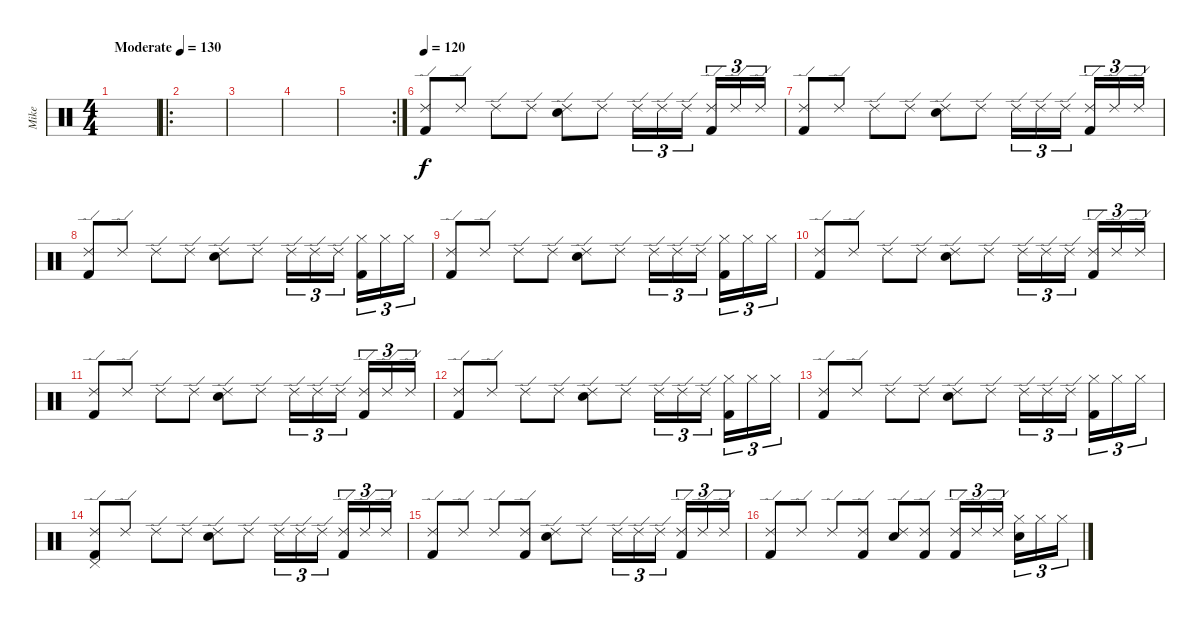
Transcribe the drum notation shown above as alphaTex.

\track ("Mike" "Mike") {instrument percussion}
\staff {score}
\articulation defaults
\ts (4 4)
\tempo (130 "Moderate")
\clef neutral
\ks c
|
\ro
|
|
|
\rc 2
|
\tempo 120
("Ride (edge) 2" "Kick (hit) 2").8 "Ride (edge) 2".8 "Ride (edge) 2".8 "Ride (edge) 2".8 ("Ride (edge) 2" "Electric Snare (hit)").8 "Ride (edge) 2".8 "Ride (edge) 2".16{tu (3 2)} "Ride (edge) 2".16{tu (3 2)} "Ride (edge) 2".16{tu (3 2) beam splitsecondary} ("Ride (edge) 2" "Kick (hit) 2").16{tu (3 2)} "Ride (edge) 2".16{tu (3 2)} "Ride (edge) 2".16{tu (3 2)} |
("Ride (edge) 2" "Kick (hit) 2").8 "Ride (edge) 2".8 "Ride (edge) 2".8 "Ride (edge) 2".8 ("Ride (edge) 2" "Electric Snare (hit)").8 "Ride (edge) 2".8 "Ride (edge) 2".16{tu (3 2)} "Ride (edge) 2".16{tu (3 2)} "Ride (edge) 2".16{tu (3 2) beam splitsecondary} ("Ride (edge) 2" "Kick (hit) 2").16{tu (3 2)} "Ride (edge) 2".16{tu (3 2)} "Ride (edge) 2".16{tu (3 2)} |
("Ride (edge) 2" "Kick (hit) 2").8 "Ride (edge) 2".8 "Ride (edge) 2".8 "Ride (edge) 2".8 ("Ride (edge) 2" "Electric Snare (hit)").8 "Ride (edge) 2".8 "Ride (edge) 2".16{tu (3 2)} "Ride (edge) 2".16{tu (3 2)} "Ride (edge) 2".16{tu (3 2) beam splitsecondary} ("Hi-Hat (closed)" "Kick (hit) 2").16{tu (3 2)} "Hi-Hat (closed)".16{tu (3 2)} "Hi-Hat (closed)".16{tu (3 2)} |
("Ride (edge) 2" "Kick (hit) 2").8 "Ride (edge) 2".8 "Ride (edge) 2".8 "Ride (edge) 2".8 ("Ride (edge) 2" "Electric Snare (hit)").8 "Ride (edge) 2".8 "Ride (edge) 2".16{tu (3 2)} "Ride (edge) 2".16{tu (3 2)} "Ride (edge) 2".16{tu (3 2) beam splitsecondary} ("Hi-Hat (closed)" "Kick (hit) 2").16{tu (3 2)} "Hi-Hat (closed)".16{tu (3 2)} "Hi-Hat (closed)".16{tu (3 2)} |
("Ride (edge) 2" "Kick (hit) 2").8 "Ride (edge) 2".8 "Ride (edge) 2".8 "Ride (edge) 2".8 ("Ride (edge) 2" "Electric Snare (hit)").8 "Ride (edge) 2".8 "Ride (edge) 2".16{tu (3 2)} "Ride (edge) 2".16{tu (3 2)} "Ride (edge) 2".16{tu (3 2) beam splitsecondary} ("Ride (edge) 2" "Kick (hit) 2").16{tu (3 2)} "Ride (edge) 2".16{tu (3 2)} "Ride (edge) 2".16{tu (3 2)} |
("Ride (edge) 2" "Kick (hit) 2").8 "Ride (edge) 2".8 "Ride (edge) 2".8 "Ride (edge) 2".8 ("Ride (edge) 2" "Electric Snare (hit)").8 "Ride (edge) 2".8 "Ride (edge) 2".16{tu (3 2)} "Ride (edge) 2".16{tu (3 2)} "Ride (edge) 2".16{tu (3 2) beam splitsecondary} ("Ride (edge) 2" "Kick (hit) 2").16{tu (3 2)} "Ride (edge) 2".16{tu (3 2)} "Ride (edge) 2".16{tu (3 2)} |
("Ride (edge) 2" "Kick (hit) 2").8 "Ride (edge) 2".8 "Ride (edge) 2".8 "Ride (edge) 2".8 ("Ride (edge) 2" "Electric Snare (hit)").8 "Ride (edge) 2".8 "Ride (edge) 2".16{tu (3 2)} "Ride (edge) 2".16{tu (3 2)} "Ride (edge) 2".16{tu (3 2) beam splitsecondary} ("Hi-Hat (closed)" "Kick (hit) 2").16{tu (3 2)} "Hi-Hat (closed)".16{tu (3 2)} "Hi-Hat (closed)".16{tu (3 2)} |
("Ride (edge) 2" "Kick (hit) 2").8 "Ride (edge) 2".8 "Ride (edge) 2".8 "Ride (edge) 2".8 ("Ride (edge) 2" "Electric Snare (hit)").8 "Ride (edge) 2".8 "Ride (edge) 2".16{tu (3 2)} "Ride (edge) 2".16{tu (3 2)} "Ride (edge) 2".16{tu (3 2) beam splitsecondary} ("Hi-Hat (closed)" "Kick (hit) 2").16{tu (3 2)} "Hi-Hat (closed)".16{tu (3 2)} "Hi-Hat (closed)".16{tu (3 2)} |
("Ride (edge) 2" "Pedal Hi-Hat (hit)" "Kick (hit) 2").8 "Ride (edge) 2".8 "Ride (edge) 2".8 "Ride (edge) 2".8 ("Ride (edge) 2" "Electric Snare (hit)").8 "Ride (edge) 2".8 "Ride (edge) 2".16{tu (3 2)} "Ride (edge) 2".16{tu (3 2)} "Ride (edge) 2".16{tu (3 2) beam splitsecondary} ("Ride (edge) 2" "Kick (hit) 2").16{tu (3 2)} "Ride (edge) 2".16{tu (3 2)} "Ride (edge) 2".16{tu (3 2)} |
("Ride (edge) 2" "Kick (hit) 2").8 "Ride (edge) 2".8 "Ride (edge) 2".8 ("Ride (edge) 2" "Kick (hit) 2").8 ("Ride (edge) 2" "Electric Snare (hit)").8 "Ride (edge) 2".8 "Ride (edge) 2".16{tu (3 2)} "Ride (edge) 2".16{tu (3 2)} "Ride (edge) 2".16{tu (3 2) beam splitsecondary} ("Ride (edge) 2" "Kick (hit) 2").16{tu (3 2)} "Ride (edge) 2".16{tu (3 2)} "Ride (edge) 2".16{tu (3 2)} |
("Ride (edge) 2" "Kick (hit) 2").8 "Ride (edge) 2".8 "Ride (edge) 2".8 ("Ride (edge) 2" "Kick (hit) 2").8 ("Ride (edge) 2" "Electric Snare (hit)").8 ("Ride (edge) 2" "Kick (hit) 2").8 ("Ride (edge) 2" "Kick (hit) 2").16{tu (3 2)} "Ride (edge) 2".16{tu (3 2)} "Ride (edge) 2".16{tu (3 2) beam splitsecondary} ("Hi-Hat (closed)" "Electric Snare (hit)").16{tu (3 2)} "Hi-Hat (closed)".16{tu (3 2)} "Hi-Hat (closed)".16{tu (3 2)}
